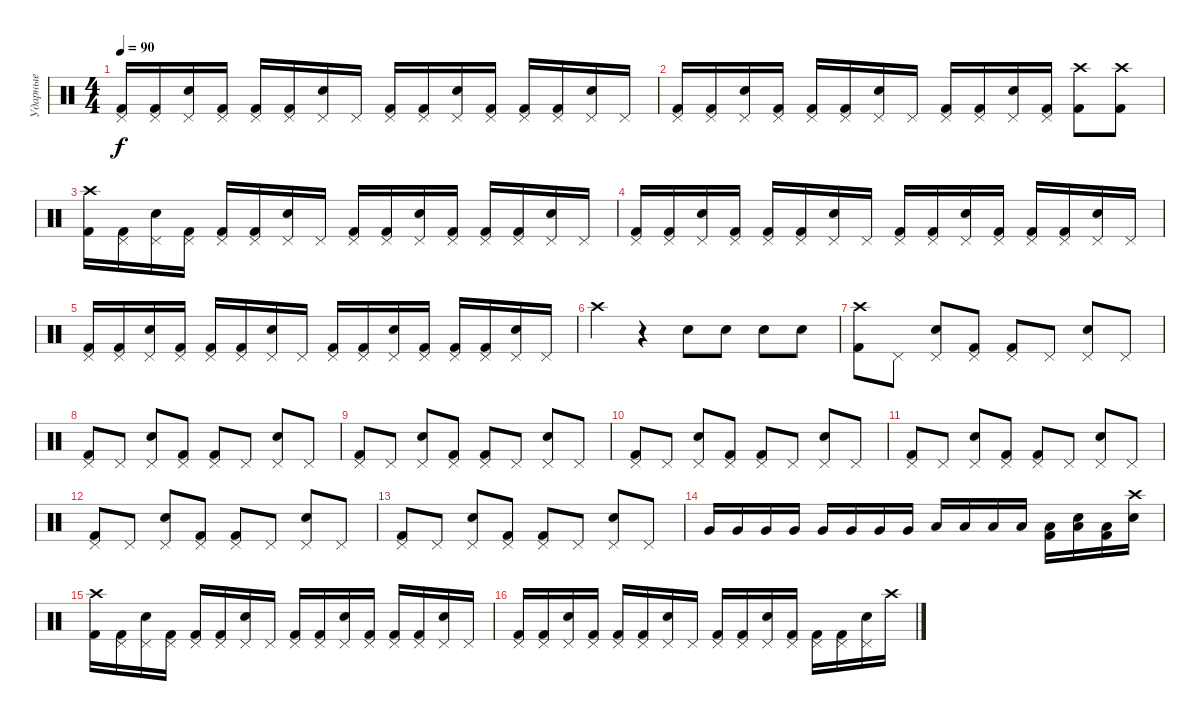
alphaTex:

\track ("Ударные" "Ударные") {instrument percussion}
\staff {score}
\articulation defaults
\ts (4 4)
\tempo 90
\clef neutral
\ks c
("Pedal Hi-Hat (hit)" "Kick (hit) 2").16{dy f} ("Pedal Hi-Hat (hit)" "Kick (hit) 2").16 ("Pedal Hi-Hat (hit)" "Snare (hit) 2").16 ("Pedal Hi-Hat (hit)" "Kick (hit) 2").16 ("Pedal Hi-Hat (hit)" "Kick (hit) 2").16 ("Pedal Hi-Hat (hit)" "Kick (hit) 2").16 ("Pedal Hi-Hat (hit)" "Snare (hit) 2").16 "Pedal Hi-Hat (hit)".16 ("Pedal Hi-Hat (hit)" "Kick (hit) 2").16 ("Pedal Hi-Hat (hit)" "Kick (hit) 2").16 ("Pedal Hi-Hat (hit)" "Snare (hit) 2").16 ("Pedal Hi-Hat (hit)" "Kick (hit) 2").16 ("Pedal Hi-Hat (hit)" "Kick (hit) 2").16 ("Pedal Hi-Hat (hit)" "Kick (hit) 2").16 ("Pedal Hi-Hat (hit)" "Snare (hit) 2").16 "Pedal Hi-Hat (hit)".16 |
("Pedal Hi-Hat (hit)" "Kick (hit) 2").16 ("Pedal Hi-Hat (hit)" "Kick (hit) 2").16 ("Pedal Hi-Hat (hit)" "Snare (hit) 2").16 ("Pedal Hi-Hat (hit)" "Kick (hit) 2").16 ("Pedal Hi-Hat (hit)" "Kick (hit) 2").16 ("Pedal Hi-Hat (hit)" "Kick (hit) 2").16 ("Pedal Hi-Hat (hit)" "Snare (hit) 2").16 "Pedal Hi-Hat (hit)".16 ("Pedal Hi-Hat (hit)" "Kick (hit) 2").16 ("Pedal Hi-Hat (hit)" "Kick (hit) 2").16 ("Pedal Hi-Hat (hit)" "Snare (hit) 2").16 ("Pedal Hi-Hat (hit)" "Kick (hit) 2").16 ("Crash high (hit)" "Kick (hit) 2").8 ("Crash high (hit)" "Kick (hit) 2").8 |
("Crash high (hit)" "Kick (hit) 2").16 ("Pedal Hi-Hat (hit)" "Kick (hit) 2").16 ("Pedal Hi-Hat (hit)" "Snare (hit) 2").16 ("Pedal Hi-Hat (hit)" "Kick (hit) 2").16 ("Pedal Hi-Hat (hit)" "Kick (hit) 2").16 ("Pedal Hi-Hat (hit)" "Kick (hit) 2").16 ("Pedal Hi-Hat (hit)" "Snare (hit) 2").16 "Pedal Hi-Hat (hit)".16 ("Pedal Hi-Hat (hit)" "Kick (hit) 2").16 ("Pedal Hi-Hat (hit)" "Kick (hit) 2").16 ("Pedal Hi-Hat (hit)" "Snare (hit) 2").16 ("Pedal Hi-Hat (hit)" "Kick (hit) 2").16 ("Pedal Hi-Hat (hit)" "Kick (hit) 2").16 ("Pedal Hi-Hat (hit)" "Kick (hit) 2").16 ("Pedal Hi-Hat (hit)" "Snare (hit) 2").16 "Pedal Hi-Hat (hit)".16 |
("Pedal Hi-Hat (hit)" "Kick (hit) 2").16 ("Pedal Hi-Hat (hit)" "Kick (hit) 2").16 ("Pedal Hi-Hat (hit)" "Snare (hit) 2").16 ("Pedal Hi-Hat (hit)" "Kick (hit) 2").16 ("Pedal Hi-Hat (hit)" "Kick (hit) 2").16 ("Pedal Hi-Hat (hit)" "Kick (hit) 2").16 ("Pedal Hi-Hat (hit)" "Snare (hit) 2").16 "Pedal Hi-Hat (hit)".16 ("Pedal Hi-Hat (hit)" "Kick (hit) 2").16 ("Pedal Hi-Hat (hit)" "Kick (hit) 2").16 ("Pedal Hi-Hat (hit)" "Snare (hit) 2").16 ("Pedal Hi-Hat (hit)" "Kick (hit) 2").16 ("Pedal Hi-Hat (hit)" "Kick (hit) 2").16 ("Pedal Hi-Hat (hit)" "Kick (hit) 2").16 ("Pedal Hi-Hat (hit)" "Snare (hit) 2").16 "Pedal Hi-Hat (hit)".16 |
("Pedal Hi-Hat (hit)" "Kick (hit) 2").16 ("Pedal Hi-Hat (hit)" "Kick (hit) 2").16 ("Pedal Hi-Hat (hit)" "Snare (hit) 2").16 ("Pedal Hi-Hat (hit)" "Kick (hit) 2").16 ("Pedal Hi-Hat (hit)" "Kick (hit) 2").16 ("Pedal Hi-Hat (hit)" "Kick (hit) 2").16 ("Pedal Hi-Hat (hit)" "Snare (hit) 2").16 "Pedal Hi-Hat (hit)".16 ("Pedal Hi-Hat (hit)" "Kick (hit) 2").16 ("Pedal Hi-Hat (hit)" "Kick (hit) 2").16 ("Pedal Hi-Hat (hit)" "Snare (hit) 2").16 ("Pedal Hi-Hat (hit)" "Kick (hit) 2").16 ("Pedal Hi-Hat (hit)" "Kick (hit) 2").16 ("Pedal Hi-Hat (hit)" "Kick (hit) 2").16 ("Pedal Hi-Hat (hit)" "Snare (hit) 2").16 "Pedal Hi-Hat (hit)".16 |
"Crash high (hit)".4 r.4 "Snare (hit) 2".8 "Snare (hit) 2".8 "Snare (hit) 2".8 "Snare (hit) 2".8 |
("Crash high (hit)" "Kick (hit) 2").8 "Pedal Hi-Hat (hit)".8 ("Pedal Hi-Hat (hit)" "Snare (hit) 2").8 ("Pedal Hi-Hat (hit)" "Kick (hit) 2").8 ("Pedal Hi-Hat (hit)" "Kick (hit) 2").8 "Pedal Hi-Hat (hit)".8 ("Pedal Hi-Hat (hit)" "Snare (hit) 2").8 "Pedal Hi-Hat (hit)".8 |
("Pedal Hi-Hat (hit)" "Kick (hit) 2").8 "Pedal Hi-Hat (hit)".8 ("Pedal Hi-Hat (hit)" "Snare (hit) 2").8 ("Pedal Hi-Hat (hit)" "Kick (hit) 2").8 ("Pedal Hi-Hat (hit)" "Kick (hit) 2").8 "Pedal Hi-Hat (hit)".8 ("Pedal Hi-Hat (hit)" "Snare (hit) 2").8 "Pedal Hi-Hat (hit)".8 |
("Pedal Hi-Hat (hit)" "Kick (hit) 2").8 "Pedal Hi-Hat (hit)".8 ("Pedal Hi-Hat (hit)" "Snare (hit) 2").8 ("Pedal Hi-Hat (hit)" "Kick (hit) 2").8 ("Pedal Hi-Hat (hit)" "Kick (hit) 2").8 "Pedal Hi-Hat (hit)".8 ("Pedal Hi-Hat (hit)" "Snare (hit) 2").8 "Pedal Hi-Hat (hit)".8 |
("Pedal Hi-Hat (hit)" "Kick (hit) 2").8 "Pedal Hi-Hat (hit)".8 ("Pedal Hi-Hat (hit)" "Snare (hit) 2").8 ("Pedal Hi-Hat (hit)" "Kick (hit) 2").8 ("Pedal Hi-Hat (hit)" "Kick (hit) 2").8 "Pedal Hi-Hat (hit)".8 ("Pedal Hi-Hat (hit)" "Snare (hit) 2").8 "Pedal Hi-Hat (hit)".8 |
("Pedal Hi-Hat (hit)" "Kick (hit) 2").8 "Pedal Hi-Hat (hit)".8 ("Pedal Hi-Hat (hit)" "Snare (hit) 2").8 ("Pedal Hi-Hat (hit)" "Kick (hit) 2").8 ("Pedal Hi-Hat (hit)" "Kick (hit) 2").8 "Pedal Hi-Hat (hit)".8 ("Pedal Hi-Hat (hit)" "Snare (hit) 2").8 "Pedal Hi-Hat (hit)".8 |
("Pedal Hi-Hat (hit)" "Kick (hit) 2").8 "Pedal Hi-Hat (hit)".8 ("Pedal Hi-Hat (hit)" "Snare (hit) 2").8 ("Pedal Hi-Hat (hit)" "Kick (hit) 2").8 ("Pedal Hi-Hat (hit)" "Kick (hit) 2").8 "Pedal Hi-Hat (hit)".8 ("Pedal Hi-Hat (hit)" "Snare (hit) 2").8 "Pedal Hi-Hat (hit)".8 |
("Pedal Hi-Hat (hit)" "Kick (hit) 2").8 "Pedal Hi-Hat (hit)".8 ("Pedal Hi-Hat (hit)" "Snare (hit) 2").8 ("Pedal Hi-Hat (hit)" "Kick (hit) 2").8 ("Pedal Hi-Hat (hit)" "Kick (hit) 2").8 "Pedal Hi-Hat (hit)".8 ("Pedal Hi-Hat (hit)" "Snare (hit) 2").8 "Pedal Hi-Hat (hit)".8 |
"Very Low Tom (hit)".16 "Very Low Tom (hit)".16 "Very Low Tom (hit)".16 "Very Low Tom (hit)".16 "Very Low Tom (hit)".16 "Very Low Tom (hit)".16 "Very Low Tom (hit)".16 "Very Low Tom (hit)".16 "Low Floor Tom (hit)".16 "Low Floor Tom (hit)".16 "Low Floor Tom (hit)".16 "Low Floor Tom (hit)".16 ("Low Floor Tom (hit)" "Kick (hit) 2").16 ("Low Floor Tom (hit)" "Snare (hit) 2").16 ("Low Floor Tom (hit)" "Kick (hit) 2").16 ("Crash high (hit)" "Snare (hit) 2").16 |
("Crash high (hit)" "Kick (hit) 2").16 ("Pedal Hi-Hat (hit)" "Kick (hit) 2").16 ("Pedal Hi-Hat (hit)" "Snare (hit) 2").16 ("Pedal Hi-Hat (hit)" "Kick (hit) 2").16 ("Pedal Hi-Hat (hit)" "Kick (hit) 2").16 ("Pedal Hi-Hat (hit)" "Kick (hit) 2").16 ("Pedal Hi-Hat (hit)" "Snare (hit) 2").16 "Pedal Hi-Hat (hit)".16 ("Pedal Hi-Hat (hit)" "Kick (hit) 2").16 ("Pedal Hi-Hat (hit)" "Kick (hit) 2").16 ("Pedal Hi-Hat (hit)" "Snare (hit) 2").16 ("Pedal Hi-Hat (hit)" "Kick (hit) 2").16 ("Pedal Hi-Hat (hit)" "Kick (hit) 2").16 ("Pedal Hi-Hat (hit)" "Kick (hit) 2").16 ("Pedal Hi-Hat (hit)" "Snare (hit) 2").16 "Pedal Hi-Hat (hit)".16 |
("Pedal Hi-Hat (hit)" "Kick (hit) 2").16 ("Pedal Hi-Hat (hit)" "Kick (hit) 2").16 ("Pedal Hi-Hat (hit)" "Snare (hit) 2").16 ("Pedal Hi-Hat (hit)" "Kick (hit) 2").16 ("Pedal Hi-Hat (hit)" "Kick (hit) 2").16 ("Pedal Hi-Hat (hit)" "Kick (hit) 2").16 ("Pedal Hi-Hat (hit)" "Snare (hit) 2").16 "Pedal Hi-Hat (hit)".16 ("Pedal Hi-Hat (hit)" "Kick (hit) 2").16 ("Pedal Hi-Hat (hit)" "Kick (hit) 2").16 ("Pedal Hi-Hat (hit)" "Snare (hit) 2").16 ("Pedal Hi-Hat (hit)" "Kick (hit) 2").16 ("Pedal Hi-Hat (hit)" "Kick (hit) 2").16 ("Pedal Hi-Hat (hit)" "Kick (hit) 2").16 ("Pedal Hi-Hat (hit)" "Snare (hit) 2").16 "Crash high (hit)".16
